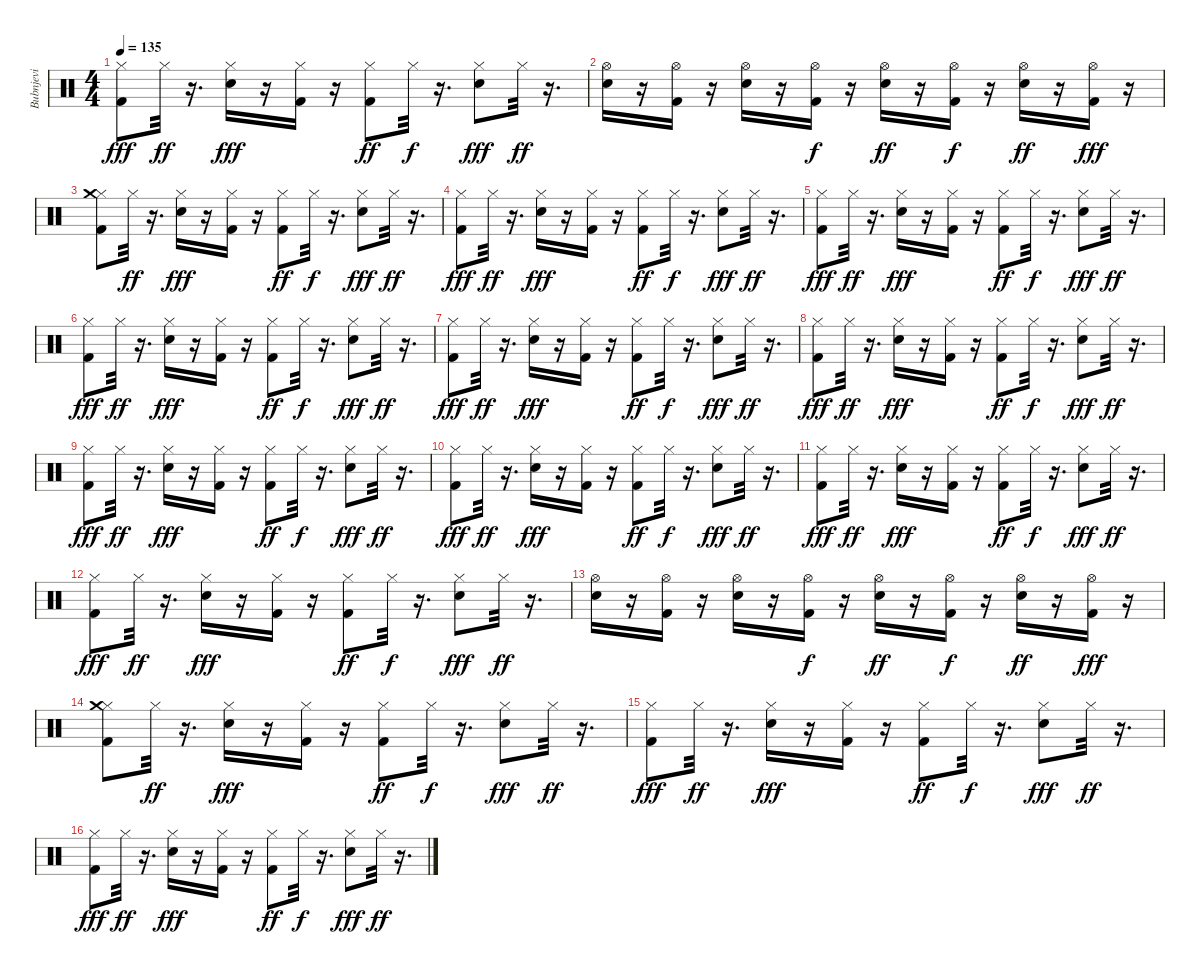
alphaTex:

\track ("Bubnjevi" "Bubnjevi") {instrument percussion}
\staff {score}
\articulation defaults
\ts (4 4)
\tempo 135
\clef neutral
\ks c
("Kick (hit) 2" "Hi-Hat (closed)").8{dy fff} "Hi-Hat (closed)".32{dy ff} r.16{d} ("Electric Snare (hit)" "Hi-Hat (closed)").16{dy fff} r.16 ("Kick (hit) 2" "Hi-Hat (closed)").16 r.16 ("Kick (hit) 2" "Hi-Hat (closed)").8{dy ff} "Hi-Hat (closed)".32{dy f} r.16{d} ("Electric Snare (hit)" "Hi-Hat (closed)").8{dy fff} "Hi-Hat (closed)".32{dy ff} r.16{d} |
("Hi-Hat (open)" "Electric Snare (hit)").16 r.16 ("Hi-Hat (open)" "Kick (hit) 2").16 r.16 ("Hi-Hat (open)" "Electric Snare (hit)").16 r.16 ("Hi-Hat (open)" "Kick (hit) 2").16{dy f} r.16 ("Hi-Hat (open)" "Electric Snare (hit)").16{dy ff} r.16 ("Hi-Hat (open)" "Kick (hit) 2").16{dy f} r.16 ("Hi-Hat (open)" "Electric Snare (hit)").16{dy ff} r.16 ("Hi-Hat (open)" "Kick (hit) 2").16{dy fff} r.16 |
("Kick (hit) 2" "Hi-Hat (closed)" "Crash medium (hit)").8 "Hi-Hat (closed)".32{dy ff} r.16{d} ("Electric Snare (hit)" "Hi-Hat (closed)").16{dy fff} r.16 ("Kick (hit) 2" "Hi-Hat (closed)").16 r.16 ("Kick (hit) 2" "Hi-Hat (closed)").8{dy ff} "Hi-Hat (closed)".32{dy f} r.16{d} ("Electric Snare (hit)" "Hi-Hat (closed)").8{dy fff} "Hi-Hat (closed)".32{dy ff} r.16{d} |
("Kick (hit) 2" "Hi-Hat (closed)").8{dy fff} "Hi-Hat (closed)".32{dy ff} r.16{d} ("Electric Snare (hit)" "Hi-Hat (closed)").16{dy fff} r.16 ("Kick (hit) 2" "Hi-Hat (closed)").16 r.16 ("Kick (hit) 2" "Hi-Hat (closed)").8{dy ff} "Hi-Hat (closed)".32{dy f} r.16{d} ("Electric Snare (hit)" "Hi-Hat (closed)").8{dy fff} "Hi-Hat (closed)".32{dy ff} r.16{d} |
("Kick (hit) 2" "Hi-Hat (closed)").8{dy fff} "Hi-Hat (closed)".32{dy ff} r.16{d} ("Electric Snare (hit)" "Hi-Hat (closed)").16{dy fff} r.16 ("Kick (hit) 2" "Hi-Hat (closed)").16 r.16 ("Kick (hit) 2" "Hi-Hat (closed)").8{dy ff} "Hi-Hat (closed)".32{dy f} r.16{d} ("Electric Snare (hit)" "Hi-Hat (closed)").8{dy fff} "Hi-Hat (closed)".32{dy ff} r.16{d} |
("Kick (hit) 2" "Hi-Hat (closed)").8{dy fff} "Hi-Hat (closed)".32{dy ff} r.16{d} ("Electric Snare (hit)" "Hi-Hat (closed)").16{dy fff} r.16 ("Kick (hit) 2" "Hi-Hat (closed)").16 r.16 ("Kick (hit) 2" "Hi-Hat (closed)").8{dy ff} "Hi-Hat (closed)".32{dy f} r.16{d} ("Electric Snare (hit)" "Hi-Hat (closed)").8{dy fff} "Hi-Hat (closed)".32{dy ff} r.16{d} |
("Kick (hit) 2" "Hi-Hat (closed)").8{dy fff} "Hi-Hat (closed)".32{dy ff} r.16{d} ("Electric Snare (hit)" "Hi-Hat (closed)").16{dy fff} r.16 ("Kick (hit) 2" "Hi-Hat (closed)").16 r.16 ("Kick (hit) 2" "Hi-Hat (closed)").8{dy ff} "Hi-Hat (closed)".32{dy f} r.16{d} ("Electric Snare (hit)" "Hi-Hat (closed)").8{dy fff} "Hi-Hat (closed)".32{dy ff} r.16{d} |
("Kick (hit) 2" "Hi-Hat (closed)").8{dy fff} "Hi-Hat (closed)".32{dy ff} r.16{d} ("Electric Snare (hit)" "Hi-Hat (closed)").16{dy fff} r.16 ("Kick (hit) 2" "Hi-Hat (closed)").16 r.16 ("Kick (hit) 2" "Hi-Hat (closed)").8{dy ff} "Hi-Hat (closed)".32{dy f} r.16{d} ("Electric Snare (hit)" "Hi-Hat (closed)").8{dy fff} "Hi-Hat (closed)".32{dy ff} r.16{d} |
("Kick (hit) 2" "Hi-Hat (closed)").8{dy fff} "Hi-Hat (closed)".32{dy ff} r.16{d} ("Electric Snare (hit)" "Hi-Hat (closed)").16{dy fff} r.16 ("Kick (hit) 2" "Hi-Hat (closed)").16 r.16 ("Kick (hit) 2" "Hi-Hat (closed)").8{dy ff} "Hi-Hat (closed)".32{dy f} r.16{d} ("Electric Snare (hit)" "Hi-Hat (closed)").8{dy fff} "Hi-Hat (closed)".32{dy ff} r.16{d} |
("Kick (hit) 2" "Hi-Hat (closed)").8{dy fff} "Hi-Hat (closed)".32{dy ff} r.16{d} ("Electric Snare (hit)" "Hi-Hat (closed)").16{dy fff} r.16 ("Kick (hit) 2" "Hi-Hat (closed)").16 r.16 ("Kick (hit) 2" "Hi-Hat (closed)").8{dy ff} "Hi-Hat (closed)".32{dy f} r.16{d} ("Electric Snare (hit)" "Hi-Hat (closed)").8{dy fff} "Hi-Hat (closed)".32{dy ff} r.16{d} |
("Kick (hit) 2" "Hi-Hat (closed)").8{dy fff} "Hi-Hat (closed)".32{dy ff} r.16{d} ("Electric Snare (hit)" "Hi-Hat (closed)").16{dy fff} r.16 ("Kick (hit) 2" "Hi-Hat (closed)").16 r.16 ("Kick (hit) 2" "Hi-Hat (closed)").8{dy ff} "Hi-Hat (closed)".32{dy f} r.16{d} ("Electric Snare (hit)" "Hi-Hat (closed)").8{dy fff} "Hi-Hat (closed)".32{dy ff} r.16{d} |
("Kick (hit) 2" "Hi-Hat (closed)").8{dy fff} "Hi-Hat (closed)".32{dy ff} r.16{d} ("Electric Snare (hit)" "Hi-Hat (closed)").16{dy fff} r.16 ("Kick (hit) 2" "Hi-Hat (closed)").16 r.16 ("Kick (hit) 2" "Hi-Hat (closed)").8{dy ff} "Hi-Hat (closed)".32{dy f} r.16{d} ("Electric Snare (hit)" "Hi-Hat (closed)").8{dy fff} "Hi-Hat (closed)".32{dy ff} r.16{d} |
("Hi-Hat (open)" "Electric Snare (hit)").16 r.16 ("Hi-Hat (open)" "Kick (hit) 2").16 r.16 ("Hi-Hat (open)" "Electric Snare (hit)").16 r.16 ("Hi-Hat (open)" "Kick (hit) 2").16{dy f} r.16 ("Hi-Hat (open)" "Electric Snare (hit)").16{dy ff} r.16 ("Hi-Hat (open)" "Kick (hit) 2").16{dy f} r.16 ("Hi-Hat (open)" "Electric Snare (hit)").16{dy ff} r.16 ("Hi-Hat (open)" "Kick (hit) 2").16{dy fff} r.16 |
("Kick (hit) 2" "Hi-Hat (closed)" "Crash medium (hit)").8 "Hi-Hat (closed)".32{dy ff} r.16{d} ("Electric Snare (hit)" "Hi-Hat (closed)").16{dy fff} r.16 ("Kick (hit) 2" "Hi-Hat (closed)").16 r.16 ("Kick (hit) 2" "Hi-Hat (closed)").8{dy ff} "Hi-Hat (closed)".32{dy f} r.16{d} ("Electric Snare (hit)" "Hi-Hat (closed)").8{dy fff} "Hi-Hat (closed)".32{dy ff} r.16{d} |
("Kick (hit) 2" "Hi-Hat (closed)").8{dy fff} "Hi-Hat (closed)".32{dy ff} r.16{d} ("Electric Snare (hit)" "Hi-Hat (closed)").16{dy fff} r.16 ("Kick (hit) 2" "Hi-Hat (closed)").16 r.16 ("Kick (hit) 2" "Hi-Hat (closed)").8{dy ff} "Hi-Hat (closed)".32{dy f} r.16{d} ("Electric Snare (hit)" "Hi-Hat (closed)").8{dy fff} "Hi-Hat (closed)".32{dy ff} r.16{d} |
("Kick (hit) 2" "Hi-Hat (closed)").8{dy fff} "Hi-Hat (closed)".32{dy ff} r.16{d} ("Electric Snare (hit)" "Hi-Hat (closed)").16{dy fff} r.16 ("Kick (hit) 2" "Hi-Hat (closed)").16 r.16 ("Kick (hit) 2" "Hi-Hat (closed)").8{dy ff} "Hi-Hat (closed)".32{dy f} r.16{d} ("Electric Snare (hit)" "Hi-Hat (closed)").8{dy fff} "Hi-Hat (closed)".32{dy ff} r.16{d}
